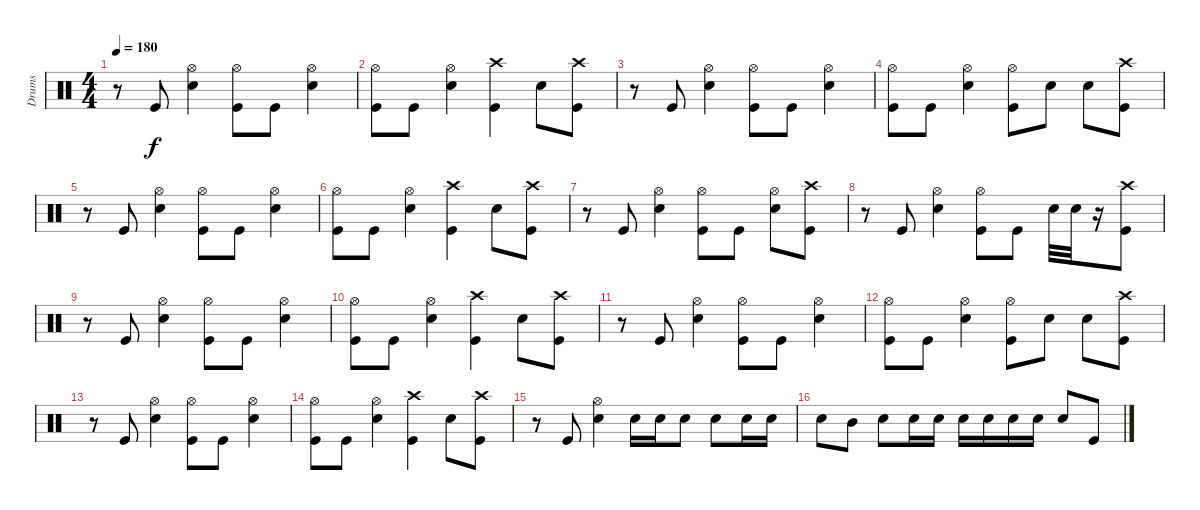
\track ("Drums" "Drums") {instrument percussion}
\staff {score}
\articulation defaults
\ts (4 4)
\tempo 180
\clef neutral
\ks c
r.8{dy f} "Kick (hit)".8 ("Hi-Hat (open)" "Snare (hit) 2").4 ("Hi-Hat (open)" "Kick (hit)").8 "Kick (hit)".8 ("Hi-Hat (open)" "Snare (hit) 2").4 |
("Hi-Hat (open)" "Kick (hit)").8 "Kick (hit)".8 ("Hi-Hat (open)" "Snare (hit) 2").4 ("Crash high (hit)" "Kick (hit)").4 "Snare (hit) 2".8 ("Crash high (hit)" "Kick (hit)").8 |
r.8 "Kick (hit)".8 ("Hi-Hat (open)" "Snare (hit) 2").4 ("Hi-Hat (open)" "Kick (hit)").8 "Kick (hit)".8 ("Hi-Hat (open)" "Snare (hit) 2").4 |
("Hi-Hat (open)" "Kick (hit)").8 "Kick (hit)".8 ("Hi-Hat (open)" "Snare (hit) 2").4 ("Hi-Hat (open)" "Kick (hit)").8 "Snare (hit) 2".8 "Snare (hit) 2".8 ("Crash high (hit)" "Kick (hit)").8 |
r.8 "Kick (hit)".8 ("Hi-Hat (open)" "Snare (hit) 2").4 ("Hi-Hat (open)" "Kick (hit)").8 "Kick (hit)".8 ("Hi-Hat (open)" "Snare (hit) 2").4 |
("Hi-Hat (open)" "Kick (hit)").8 "Kick (hit)".8 ("Hi-Hat (open)" "Snare (hit) 2").4 ("Crash high (hit)" "Kick (hit)").4 "Snare (hit) 2".8 ("Crash high (hit)" "Kick (hit)").8 |
r.8 "Kick (hit)".8 ("Hi-Hat (open)" "Snare (hit) 2").4 ("Hi-Hat (open)" "Kick (hit)").8 "Kick (hit)".8 ("Hi-Hat (open)" "Snare (hit) 2").8 ("Crash high (hit)" "Kick (hit)").8 |
r.8 "Kick (hit)".8 ("Hi-Hat (open)" "Snare (hit) 2").4 ("Hi-Hat (open)" "Kick (hit)").8 "Kick (hit)".8 "Snare (hit) 2".32 "Snare (hit) 2".32 r.16 ("Crash high (hit)" "Kick (hit)").8 |
r.8 "Kick (hit)".8 ("Hi-Hat (open)" "Snare (hit) 2").4 ("Hi-Hat (open)" "Kick (hit)").8 "Kick (hit)".8 ("Hi-Hat (open)" "Snare (hit) 2").4 |
("Hi-Hat (open)" "Kick (hit)").8 "Kick (hit)".8 ("Hi-Hat (open)" "Snare (hit) 2").4 ("Crash high (hit)" "Kick (hit)").4 "Snare (hit) 2".8 ("Crash high (hit)" "Kick (hit)").8 |
r.8 "Kick (hit)".8 ("Hi-Hat (open)" "Snare (hit) 2").4 ("Hi-Hat (open)" "Kick (hit)").8 "Kick (hit)".8 ("Hi-Hat (open)" "Snare (hit) 2").4 |
("Hi-Hat (open)" "Kick (hit)").8 "Kick (hit)".8 ("Hi-Hat (open)" "Snare (hit) 2").4 ("Hi-Hat (open)" "Kick (hit)").8 "Snare (hit) 2".8 "Snare (hit) 2".8 ("Crash high (hit)" "Kick (hit)").8 |
r.8 "Kick (hit)".8 ("Hi-Hat (open)" "Snare (hit) 2").4 ("Hi-Hat (open)" "Kick (hit)").8 "Kick (hit)".8 ("Hi-Hat (open)" "Snare (hit) 2").4 |
("Hi-Hat (open)" "Kick (hit)").8 "Kick (hit)".8 ("Hi-Hat (open)" "Snare (hit) 2").4 ("Crash high (hit)" "Kick (hit)").4 "Snare (hit) 2".8 ("Crash high (hit)" "Kick (hit)").8 |
r.8 "Kick (hit)".8 ("Hi-Hat (open)" "Snare (hit) 2").4 "Snare (hit) 2".16 "Snare (hit) 2".16 "Snare (hit) 2".8 "Snare (hit) 2".8 "Snare (hit) 2".16 "Snare (hit) 2".16 |
"Snare (hit) 2".8 "Mid Tom (hit)".8 "Snare (hit) 2".8 "Snare (hit) 2".16 "Snare (hit) 2".16 "Snare (hit) 2".16 "Snare (hit) 2".16 "Snare (hit) 2".16 "Snare (hit) 2".16 "Snare (hit) 2".8 "Kick (hit)".8
